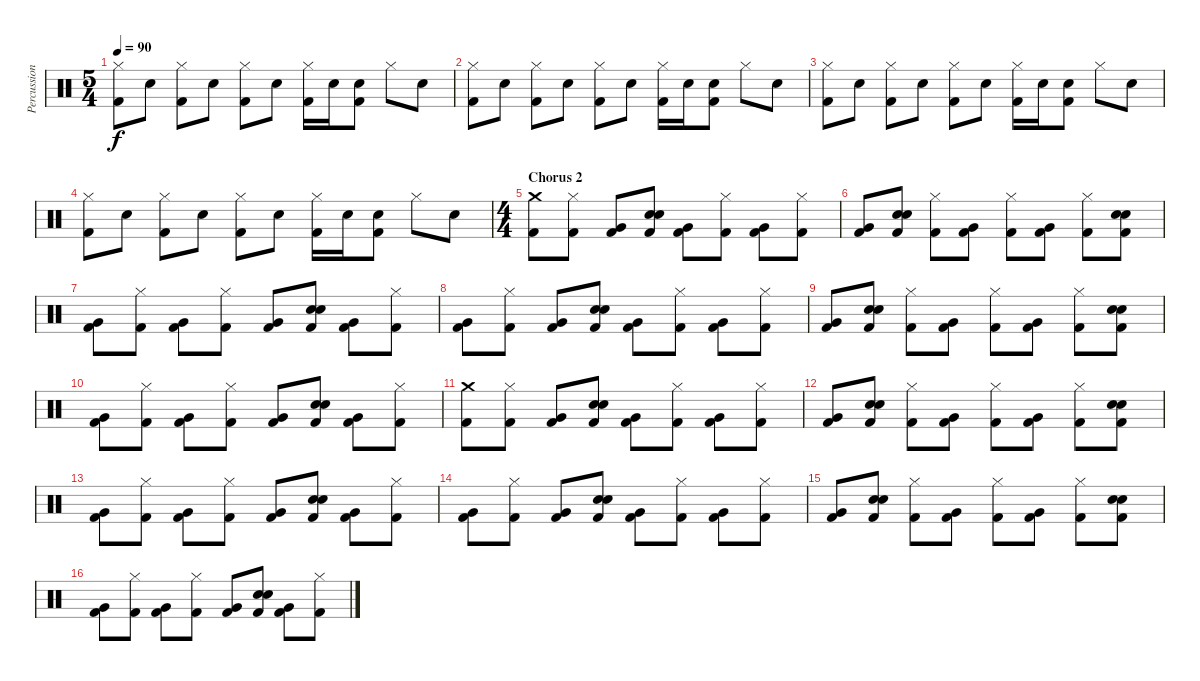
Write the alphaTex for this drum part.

\track ("Percussion" "Percussion") {instrument percussion}
\staff {score}
\articulation defaults
\ts (5 4)
\tempo 90
\clef neutral
\ks c
("Hi-Hat (closed)" "Kick (hit) 2").8{dy f} "Snare (hit) 2".8 ("Hi-Hat (closed)" "Kick (hit) 2").8 "Snare (hit) 2".8 ("Hi-Hat (closed)" "Kick (hit) 2").8 "Snare (hit) 2".8 ("Hi-Hat (closed)" "Kick (hit) 2").16 "Snare (hit) 2".16 ("Snare (hit) 2" "Kick (hit) 2").8 "Hi-Hat (closed)".8 "Snare (hit) 2".8 |
("Hi-Hat (closed)" "Kick (hit) 2").8 "Snare (hit) 2".8 ("Hi-Hat (closed)" "Kick (hit) 2").8 "Snare (hit) 2".8 ("Hi-Hat (closed)" "Kick (hit) 2").8 "Snare (hit) 2".8 ("Hi-Hat (closed)" "Kick (hit) 2").16 "Snare (hit) 2".16 ("Snare (hit) 2" "Kick (hit) 2").8 "Hi-Hat (closed)".8 "Snare (hit) 2".8 |
("Hi-Hat (closed)" "Kick (hit) 2").8 "Snare (hit) 2".8 ("Hi-Hat (closed)" "Kick (hit) 2").8 "Snare (hit) 2".8 ("Hi-Hat (closed)" "Kick (hit) 2").8 "Snare (hit) 2".8 ("Hi-Hat (closed)" "Kick (hit) 2").16 "Snare (hit) 2".16 ("Snare (hit) 2" "Kick (hit) 2").8 "Hi-Hat (closed)".8 "Snare (hit) 2".8 |
("Hi-Hat (closed)" "Kick (hit) 2").8 "Snare (hit) 2".8 ("Hi-Hat (closed)" "Kick (hit) 2").8 "Snare (hit) 2".8 ("Hi-Hat (closed)" "Kick (hit) 2").8 "Snare (hit) 2".8 ("Hi-Hat (closed)" "Kick (hit) 2").16 "Snare (hit) 2".16 ("Snare (hit) 2" "Kick (hit) 2").8 "Hi-Hat (closed)".8 "Snare (hit) 2".8 |
\ts (4 4)
\section ("" "Chorus 2")
("Crash medium (hit)" "Kick (hit) 2").8 ("Hi-Hat (closed)" "Kick (hit) 2").8 ("Very Low Tom (hit)" "Kick (hit) 2").8 ("Electric Snare (hit)" "Snare (hit) 2" "Kick (hit) 2").8 ("Very Low Tom (hit)" "Kick (hit) 2").8 ("Hi-Hat (closed)" "Kick (hit) 2").8 ("Very Low Tom (hit)" "Kick (hit) 2").8 ("Hi-Hat (closed)" "Kick (hit) 2").8 |
("Very Low Tom (hit)" "Kick (hit) 2").8 ("Electric Snare (hit)" "Snare (hit) 2" "Kick (hit) 2").8 ("Hi-Hat (closed)" "Kick (hit) 2").8 ("Very Low Tom (hit)" "Kick (hit) 2").8 ("Hi-Hat (closed)" "Kick (hit) 2").8 ("Very Low Tom (hit)" "Kick (hit) 2").8 ("Hi-Hat (closed)" "Kick (hit) 2").8 ("Electric Snare (hit)" "Snare (hit) 2" "Kick (hit) 2").8 |
("Very Low Tom (hit)" "Kick (hit) 2").8 ("Hi-Hat (closed)" "Kick (hit) 2").8 ("Very Low Tom (hit)" "Kick (hit) 2").8 ("Hi-Hat (closed)" "Kick (hit) 2").8 ("Very Low Tom (hit)" "Kick (hit) 2").8 ("Electric Snare (hit)" "Snare (hit) 2" "Kick (hit) 2").8 ("Very Low Tom (hit)" "Kick (hit) 2").8 ("Hi-Hat (closed)" "Kick (hit) 2").8 |
("Very Low Tom (hit)" "Kick (hit) 2").8 ("Hi-Hat (closed)" "Kick (hit) 2").8 ("Very Low Tom (hit)" "Kick (hit) 2").8 ("Electric Snare (hit)" "Snare (hit) 2" "Kick (hit) 2").8 ("Very Low Tom (hit)" "Kick (hit) 2").8 ("Hi-Hat (closed)" "Kick (hit) 2").8 ("Very Low Tom (hit)" "Kick (hit) 2").8 ("Hi-Hat (closed)" "Kick (hit) 2").8 |
("Very Low Tom (hit)" "Kick (hit) 2").8 ("Electric Snare (hit)" "Snare (hit) 2" "Kick (hit) 2").8 ("Hi-Hat (closed)" "Kick (hit) 2").8 ("Very Low Tom (hit)" "Kick (hit) 2").8 ("Hi-Hat (closed)" "Kick (hit) 2").8 ("Very Low Tom (hit)" "Kick (hit) 2").8 ("Hi-Hat (closed)" "Kick (hit) 2").8 ("Electric Snare (hit)" "Snare (hit) 2" "Kick (hit) 2").8 |
("Very Low Tom (hit)" "Kick (hit) 2").8 ("Hi-Hat (closed)" "Kick (hit) 2").8 ("Very Low Tom (hit)" "Kick (hit) 2").8 ("Hi-Hat (closed)" "Kick (hit) 2").8 ("Very Low Tom (hit)" "Kick (hit) 2").8 ("Electric Snare (hit)" "Snare (hit) 2" "Kick (hit) 2").8 ("Very Low Tom (hit)" "Kick (hit) 2").8 ("Hi-Hat (closed)" "Kick (hit) 2").8 |
("Crash medium (hit)" "Kick (hit) 2").8 ("Hi-Hat (closed)" "Kick (hit) 2").8 ("Very Low Tom (hit)" "Kick (hit) 2").8 ("Electric Snare (hit)" "Snare (hit) 2" "Kick (hit) 2").8 ("Very Low Tom (hit)" "Kick (hit) 2").8 ("Hi-Hat (closed)" "Kick (hit) 2").8 ("Very Low Tom (hit)" "Kick (hit) 2").8 ("Hi-Hat (closed)" "Kick (hit) 2").8 |
("Very Low Tom (hit)" "Kick (hit) 2").8 ("Electric Snare (hit)" "Snare (hit) 2" "Kick (hit) 2").8 ("Hi-Hat (closed)" "Kick (hit) 2").8 ("Very Low Tom (hit)" "Kick (hit) 2").8 ("Hi-Hat (closed)" "Kick (hit) 2").8 ("Very Low Tom (hit)" "Kick (hit) 2").8 ("Hi-Hat (closed)" "Kick (hit) 2").8 ("Electric Snare (hit)" "Snare (hit) 2" "Kick (hit) 2").8 |
("Very Low Tom (hit)" "Kick (hit) 2").8 ("Hi-Hat (closed)" "Kick (hit) 2").8 ("Very Low Tom (hit)" "Kick (hit) 2").8 ("Hi-Hat (closed)" "Kick (hit) 2").8 ("Very Low Tom (hit)" "Kick (hit) 2").8 ("Electric Snare (hit)" "Snare (hit) 2" "Kick (hit) 2").8 ("Very Low Tom (hit)" "Kick (hit) 2").8 ("Hi-Hat (closed)" "Kick (hit) 2").8 |
("Very Low Tom (hit)" "Kick (hit) 2").8 ("Hi-Hat (closed)" "Kick (hit) 2").8 ("Very Low Tom (hit)" "Kick (hit) 2").8 ("Electric Snare (hit)" "Snare (hit) 2" "Kick (hit) 2").8 ("Very Low Tom (hit)" "Kick (hit) 2").8 ("Hi-Hat (closed)" "Kick (hit) 2").8 ("Very Low Tom (hit)" "Kick (hit) 2").8 ("Hi-Hat (closed)" "Kick (hit) 2").8 |
("Very Low Tom (hit)" "Kick (hit) 2").8 ("Electric Snare (hit)" "Snare (hit) 2" "Kick (hit) 2").8 ("Hi-Hat (closed)" "Kick (hit) 2").8 ("Very Low Tom (hit)" "Kick (hit) 2").8 ("Hi-Hat (closed)" "Kick (hit) 2").8 ("Very Low Tom (hit)" "Kick (hit) 2").8 ("Hi-Hat (closed)" "Kick (hit) 2").8 ("Electric Snare (hit)" "Snare (hit) 2" "Kick (hit) 2").8 |
("Very Low Tom (hit)" "Kick (hit) 2").8 ("Hi-Hat (closed)" "Kick (hit) 2").8 ("Very Low Tom (hit)" "Kick (hit) 2").8 ("Hi-Hat (closed)" "Kick (hit) 2").8 ("Very Low Tom (hit)" "Kick (hit) 2").8 ("Electric Snare (hit)" "Snare (hit) 2" "Kick (hit) 2").8 ("Very Low Tom (hit)" "Kick (hit) 2").8 ("Hi-Hat (closed)" "Kick (hit) 2").8
